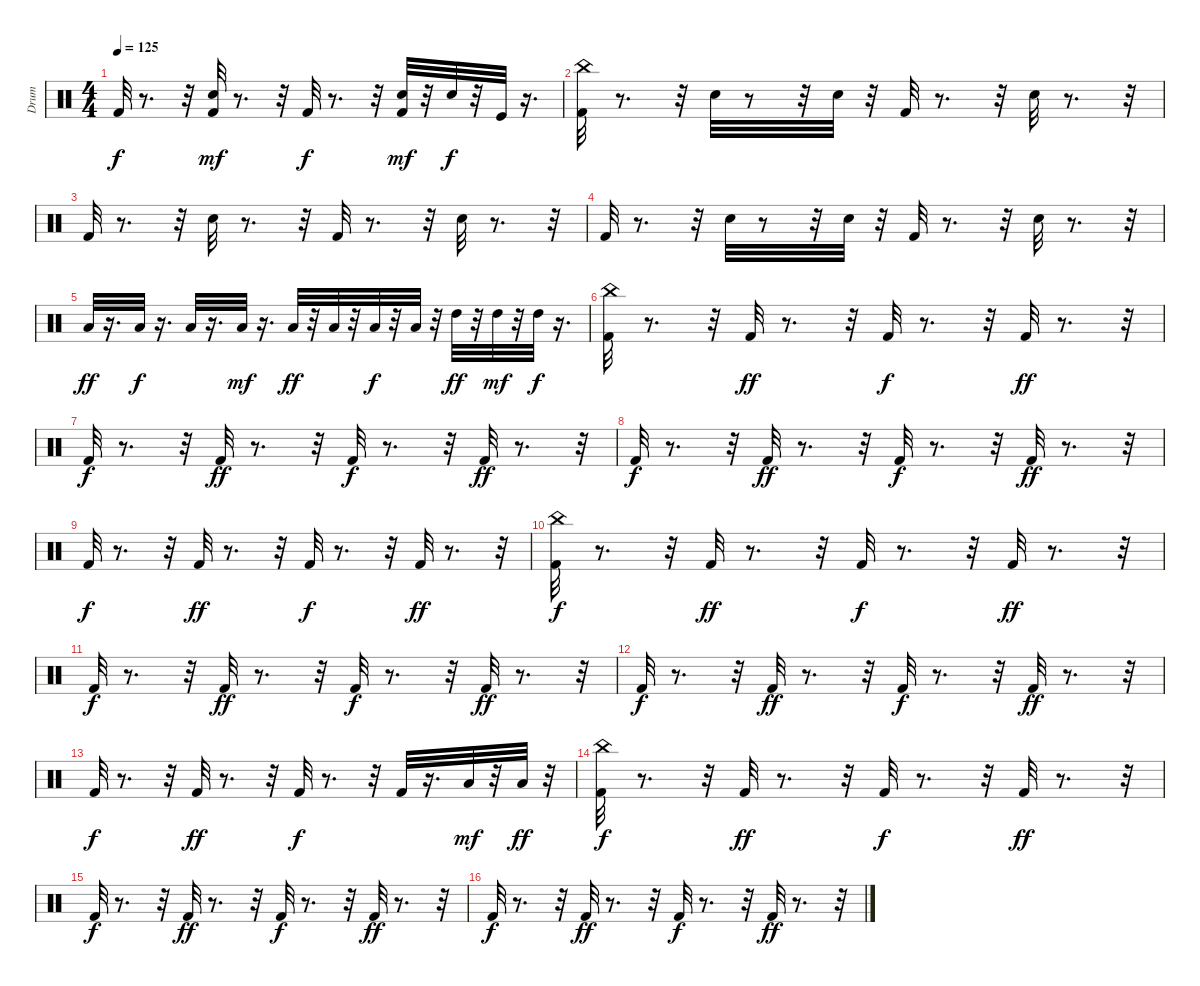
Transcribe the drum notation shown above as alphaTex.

\track ("Drum" "Drum") {instrument percussion}
\staff {score}
\articulation defaults
\ts (4 4)
\tempo 125
\clef neutral
\ks c "Kick (hit) 2".32{dy f}
r.8{d} r.32 ("Snare (hit) 2" "Kick (hit) 2").32{dy mf} r.8{d} r.32 "Kick (hit) 2".32{dy f} r.8{d} r.32 ("Snare (hit) 2" "Kick (hit) 2").32{dy mf} r.32 "Snare (hit) 2".32{dy f} r.32 "Kick (hit)".32 r.16{d} |
("China (hit)" "Kick (hit) 2").32 r.8{d} r.32 "Snare (hit) 2".32 r.8 r.32 "Snare (hit) 2".32 r.32 "Kick (hit) 2".32 r.8{d} r.32 "Snare (hit) 2".32 r.8{d} r.32 |
"Kick (hit) 2".32 r.8{d} r.32 "Snare (hit) 2".32 r.8{d} r.32 "Kick (hit) 2".32 r.8{d} r.32 "Snare (hit) 2".32 r.8{d} r.32 |
"Kick (hit) 2".32 r.8{d} r.32 "Snare (hit) 2".32 r.8 r.32 "Snare (hit) 2".32 r.32 "Kick (hit) 2".32 r.8{d} r.32 "Snare (hit) 2".32 r.8{d} r.32 |
"Low Tom (hit)".32{dy ff} r.16{d} "Low Tom (hit)".32{dy f} r.16{d} "Low Tom (hit)".32 r.16{d} "Low Tom (hit)".32{dy mf} r.16{d} "Low Floor Tom (hit)".32{dy ff} r.32 "Low Floor Tom (hit)".32 r.32 "Low Floor Tom (hit)".32{dy f} r.32 "Low Floor Tom (hit)".32 r.32 "High Tom (hit)".32{dy ff} r.32 "High Tom (hit)".32{dy mf} r.32 "High Tom (hit)".32{dy f} r.16{d} |
("China (hit)" "Kick (hit) 2").32 r.8{d} r.32 "Kick (hit) 2".32{dy ff} r.8{d} r.32 "Kick (hit) 2".32{dy f} r.8{d} r.32 "Kick (hit) 2".32{dy ff} r.8{d} r.32 |
"Kick (hit) 2".32{dy f} r.8{d} r.32 "Kick (hit) 2".32{dy ff} r.8{d} r.32 "Kick (hit) 2".32{dy f} r.8{d} r.32 "Kick (hit) 2".32{dy ff} r.8{d} r.32 |
"Kick (hit) 2".32{dy f} r.8{d} r.32 "Kick (hit) 2".32{dy ff} r.8{d} r.32 "Kick (hit) 2".32{dy f} r.8{d} r.32 "Kick (hit) 2".32{dy ff} r.8{d} r.32 |
"Kick (hit) 2".32{dy f} r.8{d} r.32 "Kick (hit) 2".32{dy ff} r.8{d} r.32 "Kick (hit) 2".32{dy f} r.8{d} r.32 "Kick (hit) 2".32{dy ff} r.8{d} r.32 |
("China (hit)" "Kick (hit) 2").32{dy f} r.8{d} r.32 "Kick (hit) 2".32{dy ff} r.8{d} r.32 "Kick (hit) 2".32{dy f} r.8{d} r.32 "Kick (hit) 2".32{dy ff} r.8{d} r.32 |
"Kick (hit) 2".32{dy f} r.8{d} r.32 "Kick (hit) 2".32{dy ff} r.8{d} r.32 "Kick (hit) 2".32{dy f} r.8{d} r.32 "Kick (hit) 2".32{dy ff} r.8{d} r.32 |
"Kick (hit) 2".32{dy f} r.8{d} r.32 "Kick (hit) 2".32{dy ff} r.8{d} r.32 "Kick (hit) 2".32{dy f} r.8{d} r.32 "Kick (hit) 2".32{dy ff} r.8{d} r.32 |
"Kick (hit) 2".32{dy f} r.8{d} r.32 "Kick (hit) 2".32{dy ff} r.8{d} r.32 "Kick (hit) 2".32{dy f} r.8{d} r.32 "Kick (hit) 2".32 r.16{d} "Low Tom (hit)".32{dy mf} r.32 "Low Tom (hit)".32{dy ff} r.32 |
("China (hit)" "Kick (hit) 2").32{dy f} r.8{d} r.32 "Kick (hit) 2".32{dy ff} r.8{d} r.32 "Kick (hit) 2".32{dy f} r.8{d} r.32 "Kick (hit) 2".32{dy ff} r.8{d} r.32 |
"Kick (hit) 2".32{dy f} r.8{d} r.32 "Kick (hit) 2".32{dy ff} r.8{d} r.32 "Kick (hit) 2".32{dy f} r.8{d} r.32 "Kick (hit) 2".32{dy ff} r.8{d} r.32 |
"Kick (hit) 2".32{dy f} r.8{d} r.32 "Kick (hit) 2".32{dy ff} r.8{d} r.32 "Kick (hit) 2".32{dy f} r.8{d} r.32 "Kick (hit) 2".32{dy ff} r.8{d} r.32
